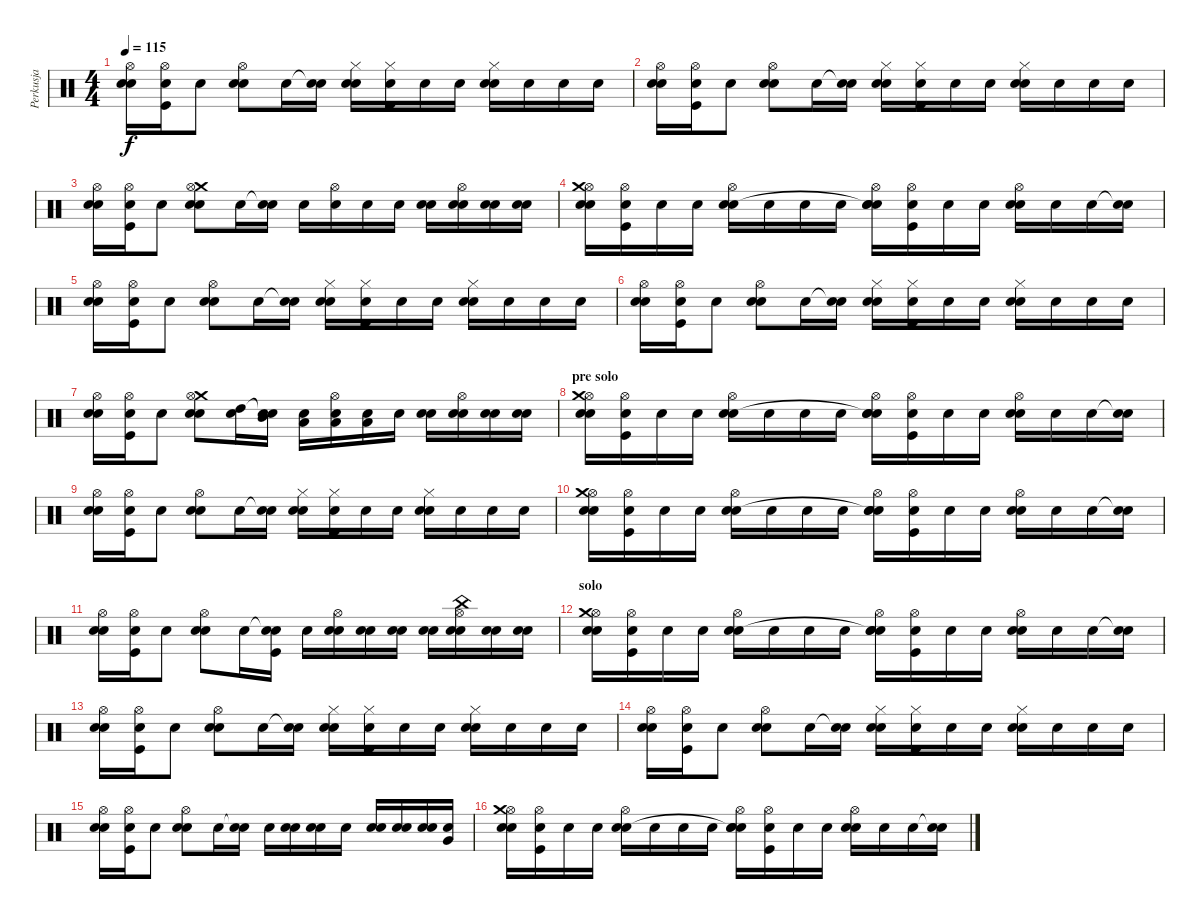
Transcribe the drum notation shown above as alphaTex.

\track ("Perkusja" "Perkusja") {instrument percussion}
\staff {score}
\articulation defaults
\ts (4 4)
\tempo 115
\clef neutral
\ks c
("Hi-Hat (open)" "Snare (hit) 2" "Snare (hit)").16{dy f} ("Hi-Hat (open)" "Kick (hit)" "Snare (hit)").16 "Snare (hit)".8 ("Electric Snare (hit)" "Hi-Hat (open)" "Snare (hit)").8 "Snare (hit)".16 ("Snare (hit)"{t} "Snare (hit)").16 ("Hi-Hat (closed)" "Snare (hit) 2" "Snare (hit)").16 ("Hi-Hat (closed)" "Kick (hit)" "Snare (hit)").16 "Snare (hit)".16 "Snare (hit)".16 ("Electric Snare (hit)" "Hi-Hat (closed)" "Snare (hit)").16 "Snare (hit)".16 "Snare (hit)".16 "Snare (hit)".16 |
("Hi-Hat (open)" "Snare (hit) 2" "Snare (hit)").16 ("Hi-Hat (open)" "Kick (hit)" "Snare (hit)").16 "Snare (hit)".8 ("Electric Snare (hit)" "Hi-Hat (open)" "Snare (hit)").8 "Snare (hit)".16 ("Snare (hit)"{t} "Snare (hit)").16 ("Hi-Hat (closed)" "Snare (hit) 2" "Snare (hit)").16 ("Hi-Hat (closed)" "Kick (hit)" "Snare (hit)").16 "Snare (hit)".16 "Snare (hit)".16 ("Electric Snare (hit)" "Hi-Hat (closed)" "Snare (hit)").16 "Snare (hit)".16 "Snare (hit)".16 "Snare (hit)".16 |
("Hi-Hat (open)" "Snare (hit) 2" "Snare (hit)").16 ("Hi-Hat (open)" "Kick (hit)" "Snare (hit)").16 "Snare (hit)".8 ("Electric Snare (hit)" "Crash medium (hit)" "Hi-Hat (open)" "Snare (hit)").8 "Snare (hit)".16 ("Snare (hit)"{t} "Snare (hit)").16 "Snare (hit)".16 ("Hi-Hat (open)" "Snare (hit)").16 "Snare (hit)".16 "Snare (hit)".16 ("Electric Snare (hit)" "Snare (hit)").16 ("Hi-Hat (open)" "Electric Snare (hit)" "Snare (hit)").16 ("Electric Snare (hit)" "Snare (hit)").16 ("Snare (hit) 2" "Snare (hit)").16 |
("Hi-Hat (open)" "Electric Snare (hit)" "Crash medium (hit)" "Snare (hit)").16 ("Hi-Hat (open)" "Kick (hit)" "Snare (hit)").16 "Snare (hit)".16 "Snare (hit)".16 ("Electric Snare (hit)" "Hi-Hat (open)" "Snare (hit)").16 "Snare (hit)".16 "Snare (hit)".16 "Snare (hit)".16 ("Hi-Hat (open)" "Snare (hit) 2" "Electric Snare (hit)"{t} "Snare (hit)").16 ("Hi-Hat (open)" "Kick (hit)" "Snare (hit)").16 "Snare (hit)".16 "Snare (hit)".16 ("Electric Snare (hit)" "Hi-Hat (open)" "Snare (hit)").16 "Snare (hit)".16 "Snare (hit)".16 ("Snare (hit)"{t} "Snare (hit)").16 |
("Hi-Hat (open)" "Snare (hit) 2" "Snare (hit)").16 ("Hi-Hat (open)" "Kick (hit)" "Snare (hit)").16 "Snare (hit)".8 ("Electric Snare (hit)" "Hi-Hat (open)" "Snare (hit)").8 "Snare (hit)".16 ("Snare (hit)"{t} "Snare (hit)").16 ("Hi-Hat (closed)" "Snare (hit) 2" "Snare (hit)").16 ("Hi-Hat (closed)" "Kick (hit)" "Snare (hit)").16 "Snare (hit)".16 "Snare (hit)".16 ("Electric Snare (hit)" "Hi-Hat (closed)" "Snare (hit)").16 "Snare (hit)".16 "Snare (hit)".16 "Snare (hit)".16 |
("Hi-Hat (open)" "Snare (hit) 2" "Snare (hit)").16 ("Hi-Hat (open)" "Kick (hit)" "Snare (hit)").16 "Snare (hit)".8 ("Electric Snare (hit)" "Hi-Hat (open)" "Snare (hit)").8 "Snare (hit)".16 ("Snare (hit)"{t} "Snare (hit)").16 ("Hi-Hat (closed)" "Snare (hit) 2" "Snare (hit)").16 ("Hi-Hat (closed)" "Kick (hit)" "Snare (hit)").16 "Snare (hit)".16 "Snare (hit)".16 ("Electric Snare (hit)" "Hi-Hat (closed)" "Snare (hit)").16 "Snare (hit)".16 "Snare (hit)".16 "Snare (hit)".16 |
("Hi-Hat (open)" "Snare (hit) 2" "Snare (hit)").16 ("Hi-Hat (open)" "Kick (hit)" "Snare (hit)").16 "Snare (hit)".8 ("Electric Snare (hit)" "Crash medium (hit)" "Hi-Hat (open)" "Snare (hit)").8 ("High Tom (hit)" "Snare (hit)").16 ("Snare (hit)"{t} "Mid Tom (hit)" "Snare (hit)").16 ("Low Tom (hit)" "Snare (hit)").16 ("Hi-Hat (open)" "Low Tom (hit)" "Snare (hit)").16 ("Low Tom (hit)" "Snare (hit)").16 "Snare (hit)".16 ("Electric Snare (hit)" "Snare (hit)").16 ("Hi-Hat (open)" "Electric Snare (hit)" "Snare (hit)").16 ("Electric Snare (hit)" "Snare (hit)").16 ("Electric Snare (hit)" "Snare (hit)").16 |
\section ("" "pre solo")
("Hi-Hat (open)" "Snare (hit) 2" "Crash medium (hit)" "Snare (hit)").16 ("Hi-Hat (open)" "Kick (hit)" "Snare (hit)").16 "Snare (hit)".16 "Snare (hit)".16 ("Electric Snare (hit)" "Hi-Hat (open)" "Snare (hit)").16 "Snare (hit)".16 "Snare (hit)".16 "Snare (hit)".16 ("Hi-Hat (open)" "Snare (hit) 2" "Electric Snare (hit)"{t} "Snare (hit)").16 ("Hi-Hat (open)" "Kick (hit)" "Snare (hit)").16 "Snare (hit)".16 "Snare (hit)".16 ("Electric Snare (hit)" "Hi-Hat (open)" "Snare (hit)").16 "Snare (hit)".16 "Snare (hit)".16 ("Snare (hit)"{t} "Snare (hit)").16 |
("Hi-Hat (open)" "Snare (hit) 2" "Snare (hit)").16 ("Hi-Hat (open)" "Kick (hit)" "Snare (hit)").16 "Snare (hit)".8 ("Electric Snare (hit)" "Hi-Hat (open)" "Snare (hit)").8 "Snare (hit)".16 ("Snare (hit)"{t} "Snare (hit)").16 ("Hi-Hat (closed)" "Snare (hit) 2" "Snare (hit)").16 ("Hi-Hat (closed)" "Kick (hit)" "Snare (hit)").16 "Snare (hit)".16 "Snare (hit)".16 ("Electric Snare (hit)" "Hi-Hat (closed)" "Snare (hit)").16 "Snare (hit)".16 "Snare (hit)".16 "Snare (hit)".16 |
("Hi-Hat (open)" "Snare (hit) 2" "Crash medium (hit)" "Snare (hit)").16 ("Hi-Hat (open)" "Kick (hit)" "Snare (hit)").16 "Snare (hit)".16 "Snare (hit)".16 ("Electric Snare (hit)" "Hi-Hat (open)" "Snare (hit)").16 "Snare (hit)".16 "Snare (hit)".16 "Snare (hit)".16 ("Hi-Hat (open)" "Snare (hit) 2" "Electric Snare (hit)"{t} "Snare (hit)").16 ("Hi-Hat (open)" "Kick (hit)" "Snare (hit)").16 "Snare (hit)".16 "Snare (hit)".16 ("Electric Snare (hit)" "Hi-Hat (open)" "Snare (hit)").16 "Snare (hit)".16 "Snare (hit)".16 ("Snare (hit)"{t} "Snare (hit)").16 |
("Hi-Hat (open)" "Snare (hit) 2" "Snare (hit)").16 ("Hi-Hat (open)" "Kick (hit)" "Snare (hit)").16 "Snare (hit)".8 ("Electric Snare (hit)" "Hi-Hat (open)" "Snare (hit)").8 "Snare (hit)".16 ("Snare (hit)"{t} "Kick (hit)" "Snare (hit)").16 "Snare (hit)".16 ("Hi-Hat (open)" "Electric Snare (hit)" "Snare (hit)").16 ("Electric Snare (hit)" "Snare (hit)").16 ("Electric Snare (hit)" "Snare (hit)").16 ("Electric Snare (hit)" "Snare (hit)").16 ("Hi-Hat (open)" "China (hit)" "Electric Snare (hit)" "Snare (hit)").16 ("Electric Snare (hit)" "Snare (hit)").16 ("Electric Snare (hit)" "Snare (hit)").16 |
\section ("" "solo")
("Hi-Hat (open)" "Snare (hit) 2" "Crash medium (hit)" "Snare (hit)").16 ("Hi-Hat (open)" "Kick (hit)" "Snare (hit)").16 "Snare (hit)".16 "Snare (hit)".16 ("Electric Snare (hit)" "Hi-Hat (open)" "Snare (hit)").16 "Snare (hit)".16 "Snare (hit)".16 "Snare (hit)".16 ("Hi-Hat (open)" "Snare (hit) 2" "Electric Snare (hit)"{t} "Snare (hit)").16 ("Hi-Hat (open)" "Kick (hit)" "Snare (hit)").16 "Snare (hit)".16 "Snare (hit)".16 ("Electric Snare (hit)" "Hi-Hat (open)" "Snare (hit)").16 "Snare (hit)".16 "Snare (hit)".16 ("Snare (hit)"{t} "Snare (hit)").16 |
("Hi-Hat (open)" "Snare (hit) 2" "Snare (hit)").16 ("Hi-Hat (open)" "Kick (hit)" "Snare (hit)").16 "Snare (hit)".8 ("Electric Snare (hit)" "Hi-Hat (open)" "Snare (hit)").8 "Snare (hit)".16 ("Snare (hit)"{t} "Snare (hit)").16 ("Hi-Hat (closed)" "Snare (hit) 2" "Snare (hit)").16 ("Hi-Hat (closed)" "Kick (hit)" "Snare (hit)").16 "Snare (hit)".16 "Snare (hit)".16 ("Electric Snare (hit)" "Hi-Hat (closed)" "Snare (hit)").16 "Snare (hit)".16 "Snare (hit)".16 "Snare (hit)".16 |
("Hi-Hat (open)" "Snare (hit) 2" "Snare (hit)").16 ("Hi-Hat (open)" "Kick (hit)" "Snare (hit)").16 "Snare (hit)".8 ("Electric Snare (hit)" "Hi-Hat (open)" "Snare (hit)").8 "Snare (hit)".16 ("Snare (hit)"{t} "Snare (hit)").16 ("Hi-Hat (closed)" "Snare (hit) 2" "Snare (hit)").16 ("Hi-Hat (closed)" "Kick (hit)" "Snare (hit)").16 "Snare (hit)".16 "Snare (hit)".16 ("Electric Snare (hit)" "Hi-Hat (closed)" "Snare (hit)").16 "Snare (hit)".16 "Snare (hit)".16 "Snare (hit)".16 |
("Hi-Hat (open)" "Snare (hit) 2" "Snare (hit)").16 ("Hi-Hat (open)" "Kick (hit)" "Snare (hit)").16 "Snare (hit)".8 ("Electric Snare (hit)" "Hi-Hat (open)" "Snare (hit)").8 "Snare (hit)".16 ("Snare (hit)"{t} "Snare (hit)").16 "Snare (hit)".16 ("Electric Snare (hit)" "Snare (hit)").16 ("Electric Snare (hit)" "Snare (hit)").16 "Snare (hit)".16 ("Electric Snare (hit)" "Snare (hit)").16 ("Electric Snare (hit)" "Snare (hit)").16 ("Electric Snare (hit)" "Snare (hit)").16 ("Very Low Tom (hit)" "Snare (hit)").16 |
("Hi-Hat (open)" "Snare (hit) 2" "Crash medium (hit)" "Snare (hit)").16 ("Hi-Hat (open)" "Kick (hit)" "Snare (hit)").16 "Snare (hit)".16 "Snare (hit)".16 ("Electric Snare (hit)" "Hi-Hat (open)" "Snare (hit)").16 "Snare (hit)".16 "Snare (hit)".16 "Snare (hit)".16 ("Hi-Hat (open)" "Snare (hit) 2" "Electric Snare (hit)"{t} "Snare (hit)").16 ("Hi-Hat (open)" "Kick (hit)" "Snare (hit)").16 "Snare (hit)".16 "Snare (hit)".16 ("Electric Snare (hit)" "Hi-Hat (open)" "Snare (hit)").16 "Snare (hit)".16 "Snare (hit)".16 ("Snare (hit)"{t} "Snare (hit)").16
